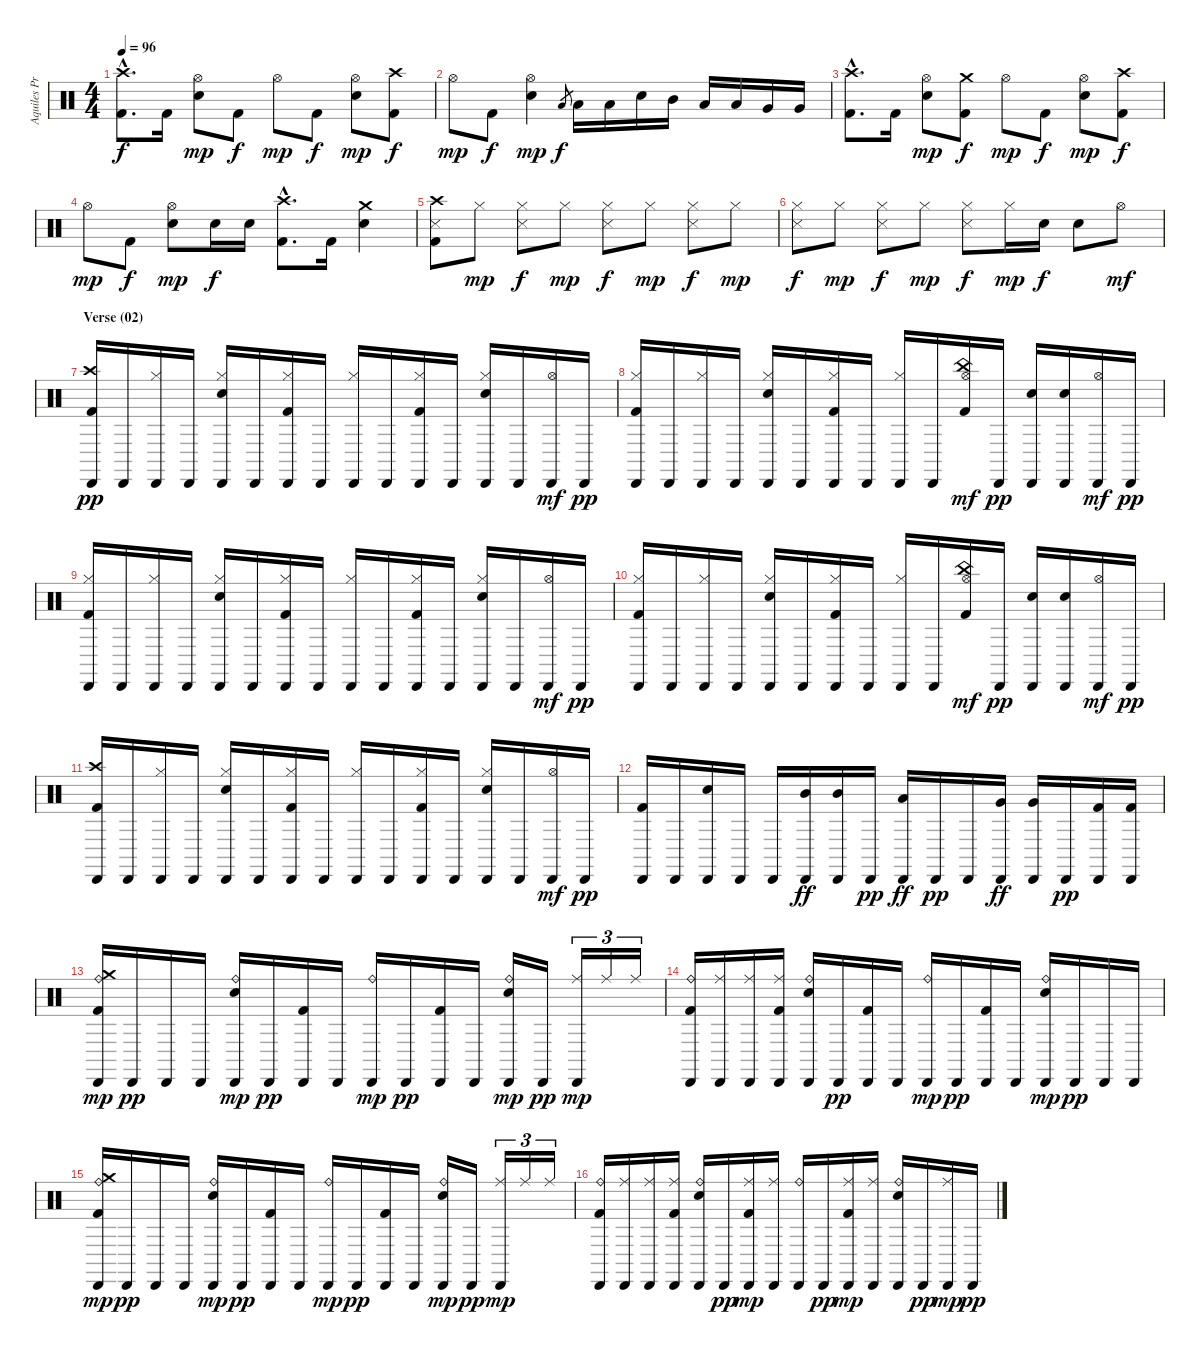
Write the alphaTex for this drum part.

\track ("Aquiles Priester" "Aquiles Pr") {instrument percussion}
\staff {score}
\articulation defaults
\ts (4 4)
\tempo 96
\clef neutral
\ks c
("Crash high (hit)"{hac} "Kick (hit) 2"{hac}).8{d dy f} "Kick (hit) 2".16 ("Hi-Hat (open)" "Snare (hit) 2").8{dy mp} "Kick (hit) 2".8{dy f} "Hi-Hat (open)".8{dy mp} "Kick (hit) 2".8{dy f} ("Hi-Hat (open)" "Snare (hit) 2").8{dy mp} ("Crash high (hit)" "Kick (hit) 2").8{dy f} |
"Hi-Hat (open)".8{dy mp} "Kick (hit) 2".8{dy f} ("Hi-Hat (open)" "Snare (hit) 2").4{dy mp} "Low Tom (hit)".8{gr dy f} "Low Tom (hit)".16 "Low Tom (hit)".16 "Snare (hit) 2".16 "Mid Tom (hit)".16 "Low Tom (hit)".16 "Low Tom (hit)".16 "Very Low Tom (hit)".16 "Very Low Tom (hit)".16 |
("Crash high (hit)"{hac} "Kick (hit) 2"{hac}).8{d} "Kick (hit) 2".16 ("Hi-Hat (open)" "Snare (hit) 2").8{dy mp} ("Crash medium (hit)" "Kick (hit) 2").8{dy f} "Hi-Hat (open)".8{dy mp} "Kick (hit) 2".8{dy f} ("Hi-Hat (open)" "Snare (hit) 2").8{dy mp} ("Crash high (hit)" "Kick (hit) 2").8{dy f} |
"Hi-Hat (open)".8{dy mp} "Kick (hit) 2".8{dy f} ("Hi-Hat (open)" "Snare (hit) 2").8{dy mp} "Snare (hit) 2".16{dy f} "Snare (hit) 2".16 ("Crash high (hit)"{hac} "Kick (hit) 2"{hac}).8{d} "Kick (hit) 2".16 ("Crash medium (hit)" "Snare (hit) 2").4 |
("Crash high (hit)" "Snare (side stick) 3" "Kick (hit) 2").8 "Hi-Hat (closed)".8{dy mp} ("Hi-Hat (closed)" "Snare (side stick) 3").8{dy f} "Hi-Hat (closed)".8{dy mp} ("Hi-Hat (closed)" "Snare (side stick) 3").8{dy f} "Hi-Hat (closed)".8{dy mp} ("Hi-Hat (closed)" "Snare (side stick) 3").8{dy f} "Hi-Hat (closed)".8{dy mp} |
("Hi-Hat (closed)" "Snare (side stick) 3").8{dy f} "Hi-Hat (closed)".8{dy mp} ("Hi-Hat (closed)" "Snare (side stick) 3").8{dy f} "Hi-Hat (closed)".8{dy mp} ("Hi-Hat (closed)" "Snare (side stick) 3").8{dy f} "Hi-Hat (closed)".16{dy mp} "Snare (hit) 2".16{dy f} "Snare (hit) 2".8 "Hi-Hat (open)".8{dy mf} |
\section ("" "Verse (02)")
("Crash high (hit)" "Cabasa (hit)" "Kick (hit) 2").16{dy pp} "Cabasa (hit)".16 ("Cabasa (hit)" "Hi-Hat (closed)").16 "Cabasa (hit)".16 ("Cabasa (hit)" "Hi-Hat (closed)" "Snare (hit) 2").16 "Cabasa (hit)".16 ("Cabasa (hit)" "Hi-Hat (closed)" "Kick (hit) 2").16 "Cabasa (hit)".16 ("Cabasa (hit)" "Hi-Hat (closed)").16 "Cabasa (hit)".16 ("Cabasa (hit)" "Hi-Hat (closed)" "Kick (hit) 2").16 "Cabasa (hit)".16 ("Cabasa (hit)" "Hi-Hat (closed)" "Snare (hit) 2").16 "Cabasa (hit)".16 ("Cabasa (hit)" "Hi-Hat (open)").16{dy mf} "Cabasa (hit)".16{dy pp} |
("Cabasa (hit)" "Hi-Hat (closed)" "Kick (hit) 2").16 "Cabasa (hit)".16 ("Cabasa (hit)" "Hi-Hat (closed)").16 "Cabasa (hit)".16 ("Cabasa (hit)" "Hi-Hat (closed)" "Snare (hit) 2").16 "Cabasa (hit)".16 ("Cabasa (hit)" "Hi-Hat (closed)" "Kick (hit) 2").16 "Cabasa (hit)".16 ("Cabasa (hit)" "Hi-Hat (closed)").16 "Cabasa (hit)".16 ("China (choke)" "Hi-Hat (open)" "Kick (hit) 2").16{dy mf} "Cabasa (hit)".16{dy pp} ("Cabasa (hit)" "Snare (hit) 2").16 ("Cabasa (hit)" "Snare (hit) 2").16 ("Cabasa (hit)" "Hi-Hat (open)").16{dy mf} "Cabasa (hit)".16{dy pp} |
("Cabasa (hit)" "Hi-Hat (closed)" "Kick (hit) 2").16 "Cabasa (hit)".16 ("Cabasa (hit)" "Hi-Hat (closed)").16 "Cabasa (hit)".16 ("Cabasa (hit)" "Hi-Hat (closed)" "Snare (hit) 2").16 "Cabasa (hit)".16 ("Cabasa (hit)" "Hi-Hat (closed)" "Kick (hit) 2").16 "Cabasa (hit)".16 ("Cabasa (hit)" "Hi-Hat (closed)").16 "Cabasa (hit)".16 ("Cabasa (hit)" "Hi-Hat (closed)" "Kick (hit) 2").16 "Cabasa (hit)".16 ("Cabasa (hit)" "Hi-Hat (closed)" "Snare (hit) 2").16 "Cabasa (hit)".16 ("Cabasa (hit)" "Hi-Hat (open)").16{dy mf} "Cabasa (hit)".16{dy pp} |
("Cabasa (hit)" "Hi-Hat (closed)" "Kick (hit) 2").16 "Cabasa (hit)".16 ("Cabasa (hit)" "Hi-Hat (closed)").16 "Cabasa (hit)".16 ("Cabasa (hit)" "Hi-Hat (closed)" "Snare (hit) 2").16 "Cabasa (hit)".16 ("Cabasa (hit)" "Hi-Hat (closed)" "Kick (hit) 2").16 "Cabasa (hit)".16 ("Cabasa (hit)" "Hi-Hat (closed)").16 "Cabasa (hit)".16 ("China (choke)" "Hi-Hat (open)" "Kick (hit) 2").16{dy mf} "Cabasa (hit)".16{dy pp} ("Cabasa (hit)" "Snare (hit) 2").16 ("Cabasa (hit)" "Snare (hit) 2").16 ("Cabasa (hit)" "Hi-Hat (open)").16{dy mf} "Cabasa (hit)".16{dy pp} |
("Crash high (hit)" "Cabasa (hit)" "Kick (hit) 2").16 "Cabasa (hit)".16 ("Cabasa (hit)" "Hi-Hat (closed)").16 "Cabasa (hit)".16 ("Cabasa (hit)" "Hi-Hat (closed)" "Snare (hit) 2").16 "Cabasa (hit)".16 ("Cabasa (hit)" "Hi-Hat (closed)" "Kick (hit) 2").16 "Cabasa (hit)".16 ("Cabasa (hit)" "Hi-Hat (closed)").16 "Cabasa (hit)".16 ("Cabasa (hit)" "Hi-Hat (closed)" "Kick (hit) 2").16 "Cabasa (hit)".16 ("Cabasa (hit)" "Hi-Hat (closed)" "Snare (hit) 2").16 "Cabasa (hit)".16 ("Cabasa (hit)" "Hi-Hat (open)").16{dy mf} "Cabasa (hit)".16{dy pp} |
("Cabasa (hit)" "Kick (hit) 2").16 "Cabasa (hit)".16 ("Cabasa (hit)" "Snare (hit) 2").16 "Cabasa (hit)".16 "Cabasa (hit)".16 ("Cabasa (hit)" "Mid Tom (hit)").16{dy ff} ("Cabasa (hit)" "Mid Tom (hit)").16 "Cabasa (hit)".16{dy pp} ("Cabasa (hit)" "Low Tom (hit)").16{dy ff} "Cabasa (hit)".16{dy pp} "Cabasa (hit)".16 ("Cabasa (hit)" "Very Low Tom (hit)").16{dy ff} ("Cabasa (hit)" "Very Low Tom (hit)").16 "Cabasa (hit)".16{dy pp} ("Cabasa (hit)" "Kick (hit) 2").16 ("Cabasa (hit)" "Kick (hit) 2").16 |
("Cabasa (hit)" "Crash medium (hit)" "Ride (bell)" "Kick (hit) 2").16{dy mp} "Cabasa (hit)".16{dy pp} "Cabasa (hit)".16 "Cabasa (hit)".16 ("Cabasa (hit)" "Ride (bell)" "Snare (hit) 2").16{dy mp} "Cabasa (hit)".16{dy pp} ("Cabasa (hit)" "Kick (hit) 2").16 "Cabasa (hit)".16 ("Cabasa (hit)" "Ride (bell)").16{dy mp} "Cabasa (hit)".16{dy pp} ("Cabasa (hit)" "Kick (hit) 2").16 "Cabasa (hit)".16 ("Cabasa (hit)" "Ride (bell)" "Snare (hit) 2").16{dy mp} "Cabasa (hit)".16{dy pp} ("Cabasa (hit)" "Ride (middle)").16{tu (3 2) dy mp} "Ride (middle)".16{tu (3 2)} "Ride (middle)".16{tu (3 2)} |
("Cabasa (hit)" "Ride (bell)" "Kick (hit) 2").16 ("Cabasa (hit)" "Ride (middle)").16 ("Cabasa (hit)" "Ride (middle)").16 ("Cabasa (hit)" "Ride (middle)" "Kick (hit) 2").16 ("Cabasa (hit)" "Ride (bell)" "Snare (hit) 2").16 "Cabasa (hit)".16{dy pp} ("Cabasa (hit)" "Kick (hit) 2").16 "Cabasa (hit)".16 ("Cabasa (hit)" "Ride (bell)").16{dy mp} "Cabasa (hit)".16{dy pp} ("Cabasa (hit)" "Kick (hit) 2").16 "Cabasa (hit)".16 ("Cabasa (hit)" "Ride (bell)" "Snare (hit) 2").16{dy mp} "Cabasa (hit)".16{dy pp} "Cabasa (hit)".16 "Cabasa (hit)".16 |
("Cabasa (hit)" "Crash medium (hit)" "Ride (bell)" "Kick (hit) 2").16{dy mp} "Cabasa (hit)".16{dy pp} "Cabasa (hit)".16 "Cabasa (hit)".16 ("Cabasa (hit)" "Ride (bell)" "Snare (hit) 2").16{dy mp} "Cabasa (hit)".16{dy pp} ("Cabasa (hit)" "Kick (hit) 2").16 "Cabasa (hit)".16 ("Cabasa (hit)" "Ride (bell)").16{dy mp} "Cabasa (hit)".16{dy pp} ("Cabasa (hit)" "Kick (hit) 2").16 "Cabasa (hit)".16 ("Cabasa (hit)" "Ride (bell)" "Snare (hit) 2").16{dy mp} "Cabasa (hit)".16{dy pp} ("Cabasa (hit)" "Ride (middle)").16{tu (3 2) dy mp} "Ride (middle)".16{tu (3 2)} "Ride (middle)".16{tu (3 2)} |
("Cabasa (hit)" "Ride (bell)" "Kick (hit) 2").16 ("Cabasa (hit)" "Ride (middle)").16 ("Cabasa (hit)" "Ride (middle)").16 ("Cabasa (hit)" "Ride (middle)" "Kick (hit) 2").16 ("Cabasa (hit)" "Ride (bell)" "Snare (hit) 2").16 "Cabasa (hit)".16{dy pp} ("Cabasa (hit)" "Ride (middle)" "Kick (hit) 2").16{dy mp} ("Cabasa (hit)" "Ride (middle)").16 ("Cabasa (hit)" "Ride (bell)").16 "Cabasa (hit)".16{dy pp} ("Cabasa (hit)" "Ride (middle)" "Kick (hit) 2").16{dy mp} ("Cabasa (hit)" "Ride (middle)").16 ("Cabasa (hit)" "Ride (bell)" "Snare (hit) 2").16 "Cabasa (hit)".16{dy pp} ("Cabasa (hit)" "Ride (middle)").16{dy mp} "Cabasa (hit)".16{dy pp}
